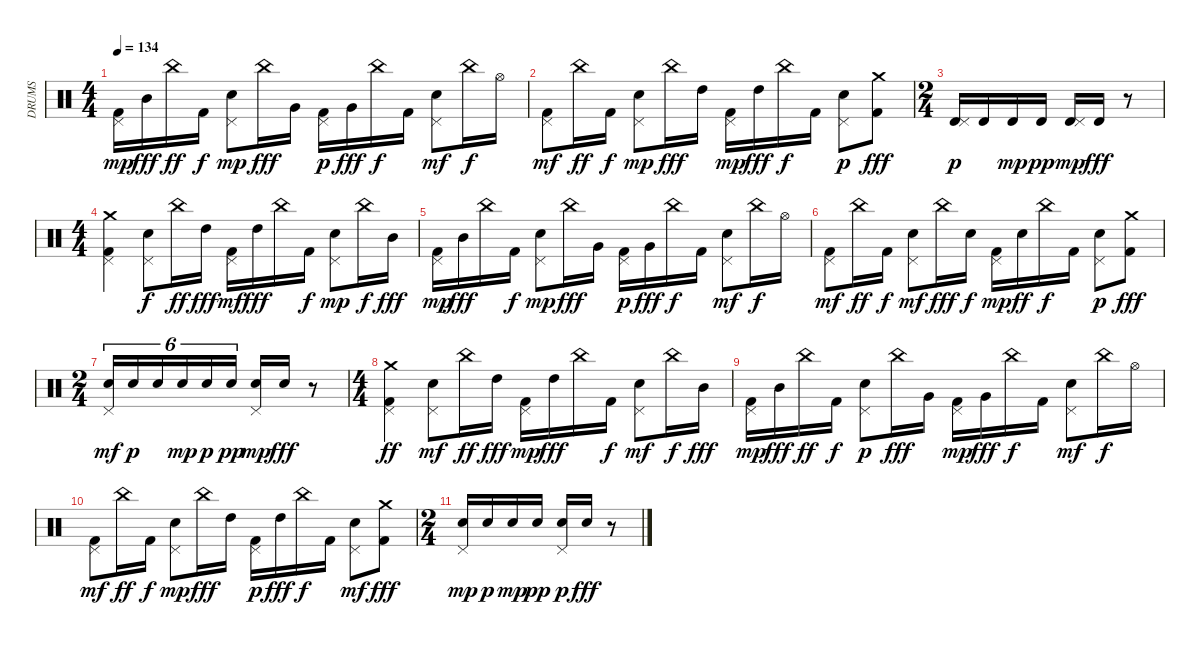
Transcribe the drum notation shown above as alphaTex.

\track ("DRUMS" "DRUMS") {instrument percussion}
\staff {score}
\articulation defaults
\ts (4 4)
\tempo 134
\clef neutral
\ks c
("Pedal Hi-Hat (hit)" "Kick (hit) 2").16{dy mp} "Mid Tom (hit)".16{dy fff} "China (hit)".16{dy ff} "Kick (hit) 2".16{dy f} ("Electric Snare (hit)" "Pedal Hi-Hat (hit)").8{dy mp} "China (hit)".16{dy fff} "Very Low Tom (hit)".16 ("Pedal Hi-Hat (hit)" "Kick (hit) 2").16{dy p} "Very Low Tom (hit)".16{dy fff} "China (hit)".16{dy f} "Kick (hit) 2".16 ("Electric Snare (hit)" "Pedal Hi-Hat (hit)").8{dy mf} "China (hit)".16{dy f} "Hi-Hat (open)".16 |
("Pedal Hi-Hat (hit)" "Kick (hit) 2").8{dy mf volume 7} "China (hit)".16{dy ff} "Kick (hit) 2".16{dy f} ("Electric Snare (hit)" "Pedal Hi-Hat (hit)").8{dy mp} "China (hit)".16{dy fff} "High Tom (hit)".16 ("Pedal Hi-Hat (hit)" "Kick (hit) 2").16{dy mp} "High Tom (hit)".16{dy fff} "China (hit)".16{dy f} "Kick (hit) 2".16 ("Electric Snare (hit)" "Pedal Hi-Hat (hit)").8{dy p} ("Crash medium (hit)" "Kick (hit) 2").8{dy fff} |
\ts (2 4)
("Timbale high (hit)" "Pedal Hi-Hat (hit)").16{dy p} "Timbale high (hit)".16 "Timbale high (hit)".16{dy mp} "Timbale high (hit)".16{dy pp} ("Timbale high (hit)" "Pedal Hi-Hat (hit)").16{dy mp} "Timbale high (hit)".16{dy fff} r.8 |
\ts (4 4)
("Crash medium (hit)" "Pedal Hi-Hat (hit)" "Kick (hit) 2").4 ("Electric Snare (hit)" "Pedal Hi-Hat (hit)").8{dy f} "China (hit)".16{dy ff} "High Tom (hit)".16{dy fff} ("Pedal Hi-Hat (hit)" "Kick (hit) 2").16{dy mf} "High Tom (hit)".16{dy fff} "China (hit)".16 "Kick (hit) 2".16{dy f} ("Electric Snare (hit)" "Pedal Hi-Hat (hit)").8{dy mp} "China (hit)".16{dy f} "Mid Tom (hit)".16{dy fff} |
("Pedal Hi-Hat (hit)" "Kick (hit) 2").16{dy mp volume 5} "Mid Tom (hit)".16{dy fff} "China (hit)".16 "Kick (hit) 2".16{dy f} ("Electric Snare (hit)" "Pedal Hi-Hat (hit)").8{dy mp} "China (hit)".16{dy fff} "Very Low Tom (hit)".16 ("Pedal Hi-Hat (hit)" "Kick (hit) 2").16{dy p} "Very Low Tom (hit)".16{dy fff} "China (hit)".16{dy f} "Kick (hit) 2".16 ("Electric Snare (hit)" "Pedal Hi-Hat (hit)").8{dy mf} "China (hit)".16{dy f} "Hi-Hat (open)".16 |
("Pedal Hi-Hat (hit)" "Kick (hit) 2").8{dy mf} "China (hit)".16{dy ff} "Kick (hit) 2".16{dy f} ("Electric Snare (hit)" "Pedal Hi-Hat (hit)").8{dy mf} "China (hit)".16{dy fff} "Electric Snare (hit)".16{dy f} ("Pedal Hi-Hat (hit)" "Kick (hit) 2").16{dy mp} "Electric Snare (hit)".16{dy ff} "China (hit)".16{dy f} "Kick (hit) 2".16 ("Electric Snare (hit)" "Pedal Hi-Hat (hit)").8{dy p} ("Crash medium (hit)" "Kick (hit) 2").8{dy fff} |
\ts (2 4)
("Electric Snare (hit)" "Pedal Hi-Hat (hit)").16{tu (6 4) dy mf volume 3} "Electric Snare (hit)".16{tu (6 4) dy p} "Electric Snare (hit)".16{tu (6 4)} "Electric Snare (hit)".16{tu (6 4) dy mp} "Electric Snare (hit)".16{tu (6 4) dy p} "Electric Snare (hit)".16{tu (6 4) dy pp} ("Electric Snare (hit)" "Pedal Hi-Hat (hit)").16{dy mp} "Electric Snare (hit)".16{dy fff} r.8 |
\ts (4 4)
("Crash medium (hit)" "Pedal Hi-Hat (hit)" "Kick (hit) 2").4{dy ff} ("Electric Snare (hit)" "Pedal Hi-Hat (hit)").8{dy mf} "China (hit)".16{dy ff} "High Tom (hit)".16{dy fff} ("Pedal Hi-Hat (hit)" "Kick (hit) 2").16{dy mp} "High Tom (hit)".16{dy fff} "China (hit)".16 "Kick (hit) 2".16{dy f} ("Electric Snare (hit)" "Pedal Hi-Hat (hit)").8{dy mf} "China (hit)".16{dy f} "Mid Tom (hit)".16{dy fff} |
("Pedal Hi-Hat (hit)" "Kick (hit) 2").16{dy mp} "Mid Tom (hit)".16{dy fff} "China (hit)".16{dy ff} "Kick (hit) 2".16{dy f} ("Electric Snare (hit)" "Pedal Hi-Hat (hit)").8{dy p} "China (hit)".16{dy fff} "Very Low Tom (hit)".16 ("Pedal Hi-Hat (hit)" "Kick (hit) 2").16{dy mp} "Very Low Tom (hit)".16{dy fff} "China (hit)".16{dy f} "Kick (hit) 2".16 ("Electric Snare (hit)" "Pedal Hi-Hat (hit)").8{dy mf} "China (hit)".16{dy f} "Hi-Hat (open)".16 |
("Pedal Hi-Hat (hit)" "Kick (hit) 2").8{dy mf volume 0} "China (hit)".16{dy ff} "Kick (hit) 2".16{dy f} ("Electric Snare (hit)" "Pedal Hi-Hat (hit)").8{dy mp} "China (hit)".16{dy fff} "High Tom (hit)".16 ("Pedal Hi-Hat (hit)" "Kick (hit) 2").16{dy p} "High Tom (hit)".16{dy fff} "China (hit)".16{dy f} "Kick (hit) 2".16 ("Electric Snare (hit)" "Pedal Hi-Hat (hit)").8{dy mf} ("Crash medium (hit)" "Kick (hit) 2").8{dy fff} |
\ts (2 4)
("Electric Snare (hit)" "Pedal Hi-Hat (hit)").16{dy mp} "Electric Snare (hit)".16{dy p} "Electric Snare (hit)".16{dy mp} "Electric Snare (hit)".16{dy pp} ("Electric Snare (hit)" "Pedal Hi-Hat (hit)").16{dy p} "Electric Snare (hit)".16{dy fff} r.8
